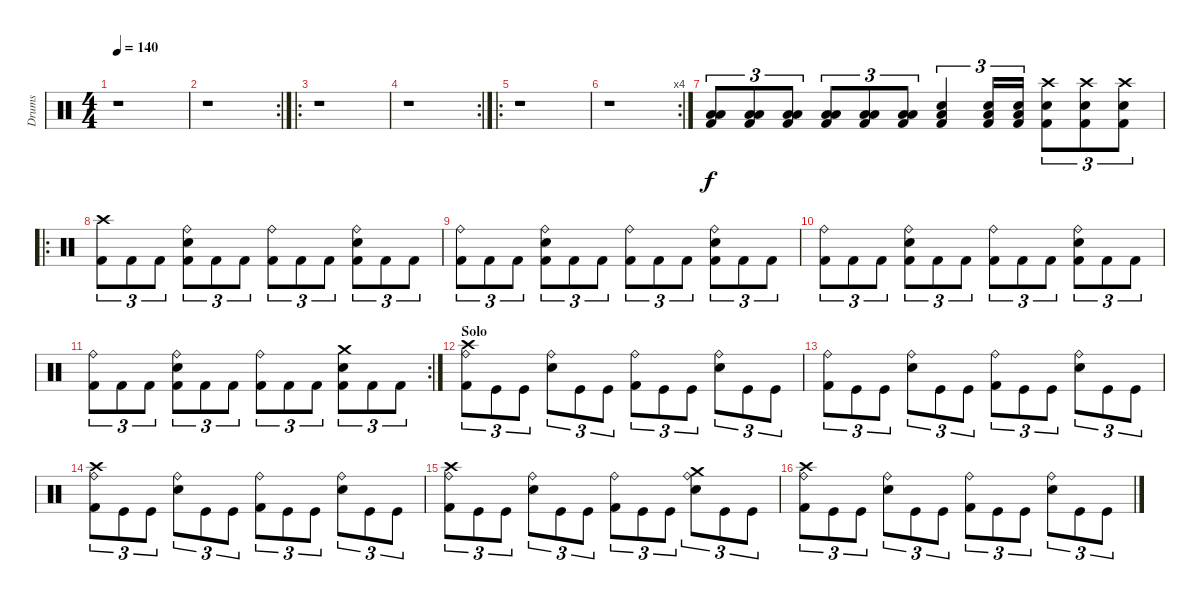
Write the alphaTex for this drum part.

\track ("Drums" "Drums") {instrument percussion}
\staff {score}
\articulation defaults
\ts (4 4)
\tempo 140
\clef neutral
\ks c
r.1{dy f} |
\rc 2
r.1 |
\ro
r.1 |
\rc 2
r.1 |
\ro
r.1 |
\rc 4
r.1 |
("Low Floor Tom (hit)" "Kick (hit) 2" "Low Tom (hit)").8{tu (3 2)} ("Low Floor Tom (hit)" "Kick (hit) 2" "Low Tom (hit)").8{tu (3 2)} ("Low Floor Tom (hit)" "Kick (hit) 2" "Low Tom (hit)").8{tu (3 2)} ("Low Floor Tom (hit)" "Kick (hit) 2" "Low Tom (hit)").8{tu (3 2)} ("Low Floor Tom (hit)" "Kick (hit) 2" "Low Tom (hit)").8{tu (3 2)} ("Low Floor Tom (hit)" "Kick (hit) 2" "Low Tom (hit)").8{tu (3 2)} ("Snare (hit) 2" "Kick (hit) 2" "Low Tom (hit)").4{tu (3 2)} ("Snare (hit) 2" "Kick (hit) 2" "Low Tom (hit)").16{tu (3 2)} ("Snare (hit) 2" "Kick (hit) 2" "Low Tom (hit)").16{tu (3 2)} ("Snare (hit) 2" "Kick (hit) 2" "Crash high (hit)").8{tu (3 2)} ("Snare (hit) 2" "Kick (hit) 2" "Crash high (hit)").8{tu (3 2)} ("Snare (hit) 2" "Kick (hit) 2" "Crash high (hit)").8{tu (3 2)} |
\ro
("Crash high (hit)" "Kick (hit) 2").8{tu (3 2)} "Kick (hit) 2".8{tu (3 2)} "Kick (hit) 2".8{tu (3 2)} ("Ride (bell)" "Snare (hit) 2" "Kick (hit) 2").8{tu (3 2)} "Kick (hit) 2".8{tu (3 2)} "Kick (hit) 2".8{tu (3 2)} ("Ride (bell)" "Kick (hit) 2").8{tu (3 2)} "Kick (hit) 2".8{tu (3 2)} "Kick (hit) 2".8{tu (3 2)} ("Ride (bell)" "Snare (hit) 2" "Kick (hit) 2").8{tu (3 2)} "Kick (hit) 2".8{tu (3 2)} "Kick (hit) 2".8{tu (3 2)} |
("Ride (bell)" "Kick (hit) 2").8{tu (3 2)} "Kick (hit) 2".8{tu (3 2)} "Kick (hit) 2".8{tu (3 2)} ("Ride (bell)" "Snare (hit) 2" "Kick (hit) 2").8{tu (3 2)} "Kick (hit) 2".8{tu (3 2)} "Kick (hit) 2".8{tu (3 2)} ("Ride (bell)" "Kick (hit) 2").8{tu (3 2)} "Kick (hit) 2".8{tu (3 2)} "Kick (hit) 2".8{tu (3 2)} ("Ride (bell)" "Snare (hit) 2" "Kick (hit) 2").8{tu (3 2)} "Kick (hit) 2".8{tu (3 2)} "Kick (hit) 2".8{tu (3 2)} |
("Ride (bell)" "Kick (hit) 2").8{tu (3 2)} "Kick (hit) 2".8{tu (3 2)} "Kick (hit) 2".8{tu (3 2)} ("Ride (bell)" "Snare (hit) 2" "Kick (hit) 2").8{tu (3 2)} "Kick (hit) 2".8{tu (3 2)} "Kick (hit) 2".8{tu (3 2)} ("Ride (bell)" "Kick (hit) 2").8{tu (3 2)} "Kick (hit) 2".8{tu (3 2)} "Kick (hit) 2".8{tu (3 2)} ("Ride (bell)" "Snare (hit) 2" "Kick (hit) 2").8{tu (3 2)} "Kick (hit) 2".8{tu (3 2)} "Kick (hit) 2".8{tu (3 2)} |
\rc 2
("Ride (bell)" "Kick (hit) 2").8{tu (3 2)} "Kick (hit) 2".8{tu (3 2)} "Kick (hit) 2".8{tu (3 2)} ("Ride (bell)" "Snare (hit) 2" "Kick (hit) 2").8{tu (3 2)} "Kick (hit) 2".8{tu (3 2)} "Kick (hit) 2".8{tu (3 2)} ("Ride (bell)" "Kick (hit) 2").8{tu (3 2)} "Kick (hit) 2".8{tu (3 2)} "Kick (hit) 2".8{tu (3 2)} ("Crash medium (hit)" "Snare (hit) 2" "Kick (hit) 2").8{tu (3 2)} "Kick (hit) 2".8{tu (3 2)} "Kick (hit) 2".8{tu (3 2)} |
\section ("" "Solo")
("Ride (bell)" "Crash high (hit)" "Kick (hit) 2").8{tu (3 2)} "Kick (hit)".8{tu (3 2)} "Kick (hit)".8{tu (3 2)} ("Ride (bell)" "Snare (hit) 2").8{tu (3 2)} "Kick (hit)".8{tu (3 2)} "Kick (hit)".8{tu (3 2)} ("Ride (bell)" "Kick (hit) 2").8{tu (3 2)} "Kick (hit)".8{tu (3 2)} "Kick (hit)".8{tu (3 2)} ("Ride (bell)" "Snare (hit) 2").8{tu (3 2)} "Kick (hit)".8{tu (3 2)} "Kick (hit)".8{tu (3 2)} |
("Ride (bell)" "Kick (hit) 2").8{tu (3 2)} "Kick (hit)".8{tu (3 2)} "Kick (hit)".8{tu (3 2)} ("Ride (bell)" "Snare (hit) 2").8{tu (3 2)} "Kick (hit)".8{tu (3 2)} "Kick (hit)".8{tu (3 2)} ("Ride (bell)" "Kick (hit) 2").8{tu (3 2)} "Kick (hit)".8{tu (3 2)} "Kick (hit)".8{tu (3 2)} ("Ride (bell)" "Snare (hit) 2").8{tu (3 2)} "Kick (hit)".8{tu (3 2)} "Kick (hit)".8{tu (3 2)} |
("Ride (bell)" "Kick (hit) 2" "Crash high (hit)").8{tu (3 2)} "Kick (hit)".8{tu (3 2)} "Kick (hit)".8{tu (3 2)} ("Ride (bell)" "Snare (hit) 2").8{tu (3 2)} "Kick (hit)".8{tu (3 2)} "Kick (hit)".8{tu (3 2)} ("Ride (bell)" "Kick (hit) 2").8{tu (3 2)} "Kick (hit)".8{tu (3 2)} "Kick (hit)".8{tu (3 2)} ("Ride (bell)" "Snare (hit) 2").8{tu (3 2)} "Kick (hit)".8{tu (3 2)} "Kick (hit)".8{tu (3 2)} |
("Ride (bell)" "Kick (hit) 2" "Crash high (hit)").8{tu (3 2)} "Kick (hit)".8{tu (3 2)} "Kick (hit)".8{tu (3 2)} ("Ride (bell)" "Snare (hit) 2").8{tu (3 2)} "Kick (hit)".8{tu (3 2)} "Kick (hit)".8{tu (3 2)} ("Ride (bell)" "Kick (hit) 2").8{tu (3 2)} "Kick (hit)".8{tu (3 2)} "Kick (hit)".8{tu (3 2)} ("Ride (bell)" "Snare (hit) 2" "Crash medium (hit)").8{tu (3 2)} "Kick (hit)".8{tu (3 2)} "Kick (hit)".8{tu (3 2)} |
("Ride (bell)" "Crash high (hit)" "Kick (hit) 2").8{tu (3 2)} "Kick (hit)".8{tu (3 2)} "Kick (hit)".8{tu (3 2)} ("Ride (bell)" "Snare (hit) 2").8{tu (3 2)} "Kick (hit)".8{tu (3 2)} "Kick (hit)".8{tu (3 2)} ("Ride (bell)" "Kick (hit) 2").8{tu (3 2)} "Kick (hit)".8{tu (3 2)} "Kick (hit)".8{tu (3 2)} ("Ride (bell)" "Snare (hit) 2").8{tu (3 2)} "Kick (hit)".8{tu (3 2)} "Kick (hit)".8{tu (3 2)}
